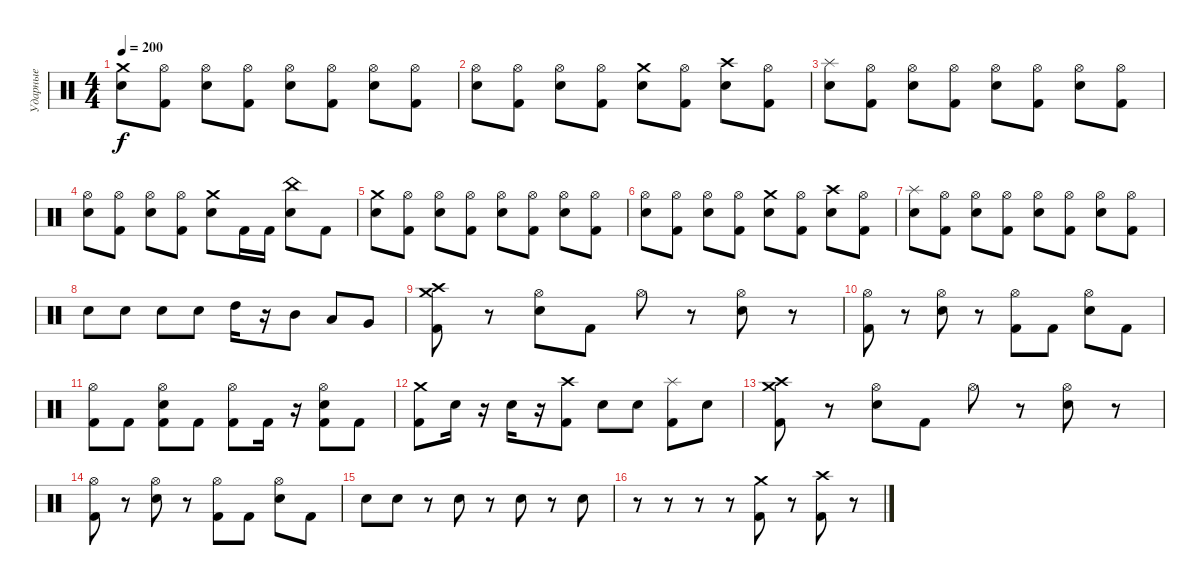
\track ("Ударные" "Ударные") {instrument percussion}
\staff {score}
\articulation defaults
\ts (4 4)
\tempo 200
\clef neutral
\ks c
("Electric Snare (hit)" "Crash medium (hit)").8{dy f} ("Kick (hit) 2" "Hi-Hat (open)").8 ("Electric Snare (hit)" "Hi-Hat (open)").8 ("Kick (hit) 2" "Hi-Hat (open)").8 ("Electric Snare (hit)" "Hi-Hat (open)").8 ("Kick (hit) 2" "Hi-Hat (open)").8 ("Electric Snare (hit)" "Hi-Hat (open)").8 ("Kick (hit) 2" "Hi-Hat (open)").8 |
("Electric Snare (hit)" "Hi-Hat (open)").8 ("Kick (hit) 2" "Hi-Hat (open)").8 ("Electric Snare (hit)" "Hi-Hat (open)").8 ("Kick (hit) 2" "Hi-Hat (open)").8 ("Electric Snare (hit)" "Crash medium (hit)").8 ("Kick (hit) 2" "Hi-Hat (open)").8 ("Electric Snare (hit)" "Crash high (hit)").8 ("Kick (hit) 2" "Hi-Hat (open)").8 |
("Electric Snare (hit)" "Splash (hit)").8 ("Kick (hit) 2" "Hi-Hat (open)").8 ("Electric Snare (hit)" "Hi-Hat (open)").8 ("Kick (hit) 2" "Hi-Hat (open)").8 ("Electric Snare (hit)" "Hi-Hat (open)").8 ("Kick (hit) 2" "Hi-Hat (open)").8 ("Electric Snare (hit)" "Hi-Hat (open)").8 ("Kick (hit) 2" "Hi-Hat (open)").8 |
("Electric Snare (hit)" "Hi-Hat (open)").8 ("Kick (hit) 2" "Hi-Hat (open)").8 ("Electric Snare (hit)" "Hi-Hat (open)").8 ("Kick (hit) 2" "Hi-Hat (open)").8 ("Electric Snare (hit)" "Crash medium (hit)").8 "Kick (hit) 2".16 "Kick (hit) 2".16 ("Electric Snare (hit)" "China (hit)").8 "Kick (hit) 2".8 |
("Electric Snare (hit)" "Crash medium (hit)").8 ("Kick (hit) 2" "Hi-Hat (open)").8 ("Electric Snare (hit)" "Hi-Hat (open)").8 ("Kick (hit) 2" "Hi-Hat (open)").8 ("Electric Snare (hit)" "Hi-Hat (open)").8 ("Kick (hit) 2" "Hi-Hat (open)").8 ("Electric Snare (hit)" "Hi-Hat (open)").8 ("Kick (hit) 2" "Hi-Hat (open)").8 |
("Electric Snare (hit)" "Hi-Hat (open)").8 ("Kick (hit) 2" "Hi-Hat (open)").8 ("Electric Snare (hit)" "Hi-Hat (open)").8 ("Kick (hit) 2" "Hi-Hat (open)").8 ("Electric Snare (hit)" "Crash medium (hit)").8 ("Kick (hit) 2" "Hi-Hat (open)").8 ("Electric Snare (hit)" "Crash high (hit)").8 ("Kick (hit) 2" "Hi-Hat (open)").8 |
("Electric Snare (hit)" "Splash (hit)").8 ("Kick (hit) 2" "Hi-Hat (open)").8 ("Electric Snare (hit)" "Hi-Hat (open)").8 ("Kick (hit) 2" "Hi-Hat (open)").8 ("Electric Snare (hit)" "Hi-Hat (open)").8 ("Kick (hit) 2" "Hi-Hat (open)").8 ("Electric Snare (hit)" "Hi-Hat (open)").8 ("Kick (hit) 2" "Hi-Hat (open)").8 |
"Electric Snare (hit)".8 "Electric Snare (hit)".8 "Electric Snare (hit)".8 "Electric Snare (hit)".8 "High Tom (hit)".16 r.16 "Mid Tom (hit)".8 "Low Tom (hit)".8 "Very Low Tom (hit)".8 |
("Kick (hit) 2" "Crash high (hit)" "Crash medium (hit)").8 r.8 ("Electric Snare (hit)" "Hi-Hat (open)").8 "Kick (hit) 2".8 "Hi-Hat (open)".8 r.8 ("Electric Snare (hit)" "Hi-Hat (open)").8 r.8 |
("Kick (hit) 2" "Hi-Hat (open)").8 r.8 ("Electric Snare (hit)" "Hi-Hat (open)").8 r.8 ("Kick (hit) 2" "Hi-Hat (open)").8 "Kick (hit) 2".8 ("Electric Snare (hit)" "Hi-Hat (open)").8 "Kick (hit) 2".8 |
("Kick (hit) 2" "Hi-Hat (open)").8 "Kick (hit) 2".8 ("Kick (hit) 2" "Electric Snare (hit)" "Hi-Hat (open)").8 "Kick (hit) 2".8 ("Kick (hit) 2" "Hi-Hat (open)").8 "Kick (hit) 2".16 r.16 ("Kick (hit) 2" "Electric Snare (hit)" "Hi-Hat (open)").8 "Kick (hit) 2".8 |
("Kick (hit) 2" "Crash medium (hit)").8 "Electric Snare (hit)".16 r.16 "Electric Snare (hit)".16 r.16 ("Kick (hit) 2" "Crash high (hit)").8 "Electric Snare (hit)".8 "Electric Snare (hit)".8 ("Kick (hit) 2" "Splash (hit)").8 "Electric Snare (hit)".8 |
("Kick (hit) 2" "Crash high (hit)" "Crash medium (hit)").8 r.8 ("Electric Snare (hit)" "Hi-Hat (open)").8 "Kick (hit) 2".8 "Hi-Hat (open)".8 r.8 ("Electric Snare (hit)" "Hi-Hat (open)").8 r.8 |
("Kick (hit) 2" "Hi-Hat (open)").8 r.8 ("Electric Snare (hit)" "Hi-Hat (open)").8 r.8 ("Kick (hit) 2" "Hi-Hat (open)").8 "Kick (hit) 2".8 ("Electric Snare (hit)" "Hi-Hat (open)").8 "Kick (hit) 2".8 |
"Electric Snare (hit)".8 "Electric Snare (hit)".8 r.8 "Electric Snare (hit)".8 r.8 "Electric Snare (hit)".8 r.8 "Electric Snare (hit)".8 |
r.8 r.8 r.8 r.8 ("Kick (hit) 2" "Crash medium (hit)").8 r.8 ("Kick (hit) 2" "Crash high (hit)").8 r.8
